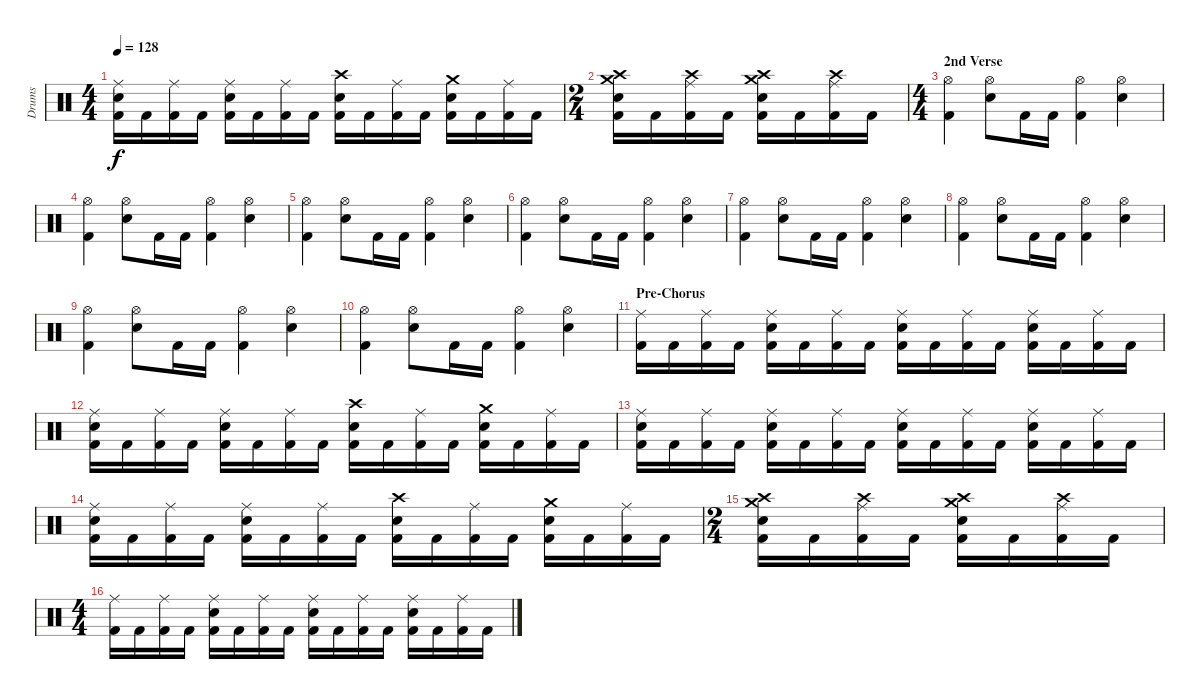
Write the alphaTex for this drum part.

\track ("Drums" "Drums") {instrument percussion}
\staff {score}
\articulation defaults
\ts (4 4)
\tempo 128
\clef neutral
\ks c
("Ride (middle)" "Snare (hit) 2" "Kick (hit) 2").16{dy f} "Kick (hit) 2".16 ("Ride (middle)" "Kick (hit) 2").16 "Kick (hit) 2".16 ("Ride (middle)" "Snare (hit) 2" "Kick (hit) 2").16 "Kick (hit) 2".16 ("Ride (middle)" "Kick (hit) 2").16 "Kick (hit) 2".16 ("Crash high (hit)" "Snare (hit) 2" "Kick (hit) 2").16 "Kick (hit) 2".16 ("Ride (middle)" "Kick (hit) 2").16 "Kick (hit) 2".16 ("Crash medium (hit)" "Snare (hit) 2" "Kick (hit) 2").16 "Kick (hit) 2".16 ("Ride (middle)" "Kick (hit) 2").16 "Kick (hit) 2".16 |
\ts (2 4)
("Crash high (hit)" "Crash medium (hit)" "Snare (hit) 2" "Kick (hit) 2").16 "Kick (hit) 2".16 ("Ride (middle)" "Crash high (hit)" "Kick (hit) 2").16 "Kick (hit) 2".16 ("Crash medium (hit)" "Crash high (hit)" "Snare (hit) 2" "Kick (hit) 2").16 "Kick (hit) 2".16 ("Ride (middle)" "Crash high (hit)" "Kick (hit) 2").16 "Kick (hit) 2".16 |
\ts (4 4)
\section ("" "2nd Verse")
("Hi-Hat (open)" "Kick (hit) 2").4 ("Hi-Hat (open)" "Snare (hit) 2").8 "Kick (hit) 2".16 "Kick (hit) 2".16 ("Hi-Hat (open)" "Kick (hit) 2").4 ("Hi-Hat (open)" "Snare (hit) 2").4 |
("Hi-Hat (open)" "Kick (hit) 2").4 ("Hi-Hat (open)" "Snare (hit) 2").8 "Kick (hit) 2".16 "Kick (hit) 2".16 ("Hi-Hat (open)" "Kick (hit) 2").4 ("Hi-Hat (open)" "Snare (hit) 2").4 |
("Hi-Hat (open)" "Kick (hit) 2").4 ("Hi-Hat (open)" "Snare (hit) 2").8 "Kick (hit) 2".16 "Kick (hit) 2".16 ("Hi-Hat (open)" "Kick (hit) 2").4 ("Hi-Hat (open)" "Snare (hit) 2").4 |
("Hi-Hat (open)" "Kick (hit) 2").4 ("Hi-Hat (open)" "Snare (hit) 2").8 "Kick (hit) 2".16 "Kick (hit) 2".16 ("Hi-Hat (open)" "Kick (hit) 2").4 ("Hi-Hat (open)" "Snare (hit) 2").4 |
("Hi-Hat (open)" "Kick (hit) 2").4 ("Hi-Hat (open)" "Snare (hit) 2").8 "Kick (hit) 2".16 "Kick (hit) 2".16 ("Hi-Hat (open)" "Kick (hit) 2").4 ("Hi-Hat (open)" "Snare (hit) 2").4 |
("Hi-Hat (open)" "Kick (hit) 2").4 ("Hi-Hat (open)" "Snare (hit) 2").8 "Kick (hit) 2".16 "Kick (hit) 2".16 ("Hi-Hat (open)" "Kick (hit) 2").4 ("Hi-Hat (open)" "Snare (hit) 2").4 |
("Hi-Hat (open)" "Kick (hit) 2").4 ("Hi-Hat (open)" "Snare (hit) 2").8 "Kick (hit) 2".16 "Kick (hit) 2".16 ("Hi-Hat (open)" "Kick (hit) 2").4 ("Hi-Hat (open)" "Snare (hit) 2").4 |
("Hi-Hat (open)" "Kick (hit) 2").4 ("Hi-Hat (open)" "Snare (hit) 2").8 "Kick (hit) 2".16 "Kick (hit) 2".16 ("Hi-Hat (open)" "Kick (hit) 2").4 ("Hi-Hat (open)" "Snare (hit) 2").4 |
\section ("" "Pre-Chorus")
("Ride (middle)" "Kick (hit) 2").16 "Kick (hit) 2".16 ("Ride (middle)" "Kick (hit) 2").16 "Kick (hit) 2".16 ("Ride (middle)" "Snare (hit) 2" "Kick (hit) 2").16 "Kick (hit) 2".16 ("Ride (middle)" "Kick (hit) 2").16 "Kick (hit) 2".16 ("Ride (middle)" "Snare (hit) 2" "Kick (hit) 2").16 "Kick (hit) 2".16 ("Ride (middle)" "Kick (hit) 2").16 "Kick (hit) 2".16 ("Ride (middle)" "Snare (hit) 2" "Kick (hit) 2").16 "Kick (hit) 2".16 ("Ride (middle)" "Kick (hit) 2").16 "Kick (hit) 2".16 |
("Ride (middle)" "Snare (hit) 2" "Kick (hit) 2").16 "Kick (hit) 2".16 ("Ride (middle)" "Kick (hit) 2").16 "Kick (hit) 2".16 ("Ride (middle)" "Snare (hit) 2" "Kick (hit) 2").16 "Kick (hit) 2".16 ("Ride (middle)" "Kick (hit) 2").16 "Kick (hit) 2".16 ("Crash high (hit)" "Snare (hit) 2" "Kick (hit) 2").16 "Kick (hit) 2".16 ("Ride (middle)" "Kick (hit) 2").16 "Kick (hit) 2".16 ("Crash medium (hit)" "Snare (hit) 2" "Kick (hit) 2").16 "Kick (hit) 2".16 ("Ride (middle)" "Kick (hit) 2").16 "Kick (hit) 2".16 |
("Ride (middle)" "Snare (hit) 2" "Kick (hit) 2").16 "Kick (hit) 2".16 ("Ride (middle)" "Kick (hit) 2").16 "Kick (hit) 2".16 ("Ride (middle)" "Snare (hit) 2" "Kick (hit) 2").16 "Kick (hit) 2".16 ("Ride (middle)" "Kick (hit) 2").16 "Kick (hit) 2".16 ("Ride (middle)" "Snare (hit) 2" "Kick (hit) 2").16 "Kick (hit) 2".16 ("Ride (middle)" "Kick (hit) 2").16 "Kick (hit) 2".16 ("Ride (middle)" "Snare (hit) 2" "Kick (hit) 2").16 "Kick (hit) 2".16 ("Ride (middle)" "Kick (hit) 2").16 "Kick (hit) 2".16 |
("Ride (middle)" "Snare (hit) 2" "Kick (hit) 2").16 "Kick (hit) 2".16 ("Ride (middle)" "Kick (hit) 2").16 "Kick (hit) 2".16 ("Ride (middle)" "Snare (hit) 2" "Kick (hit) 2").16 "Kick (hit) 2".16 ("Ride (middle)" "Kick (hit) 2").16 "Kick (hit) 2".16 ("Crash high (hit)" "Snare (hit) 2" "Kick (hit) 2").16 "Kick (hit) 2".16 ("Ride (middle)" "Kick (hit) 2").16 "Kick (hit) 2".16 ("Crash medium (hit)" "Snare (hit) 2" "Kick (hit) 2").16 "Kick (hit) 2".16 ("Ride (middle)" "Kick (hit) 2").16 "Kick (hit) 2".16 |
\ts (2 4)
("Crash high (hit)" "Crash medium (hit)" "Snare (hit) 2" "Kick (hit) 2").16 "Kick (hit) 2".16 ("Ride (middle)" "Crash high (hit)" "Kick (hit) 2").16 "Kick (hit) 2".16 ("Crash medium (hit)" "Crash high (hit)" "Snare (hit) 2" "Kick (hit) 2").16 "Kick (hit) 2".16 ("Ride (middle)" "Crash high (hit)" "Kick (hit) 2").16 "Kick (hit) 2".16 |
\ts (4 4)
("Ride (middle)" "Kick (hit) 2").16 "Kick (hit) 2".16 ("Ride (middle)" "Kick (hit) 2").16 "Kick (hit) 2".16 ("Ride (middle)" "Snare (hit) 2" "Kick (hit) 2").16 "Kick (hit) 2".16 ("Ride (middle)" "Kick (hit) 2").16 "Kick (hit) 2".16 ("Ride (middle)" "Snare (hit) 2" "Kick (hit) 2").16 "Kick (hit) 2".16 ("Ride (middle)" "Kick (hit) 2").16 "Kick (hit) 2".16 ("Ride (middle)" "Snare (hit) 2" "Kick (hit) 2").16 "Kick (hit) 2".16 ("Ride (middle)" "Kick (hit) 2").16 "Kick (hit) 2".16
